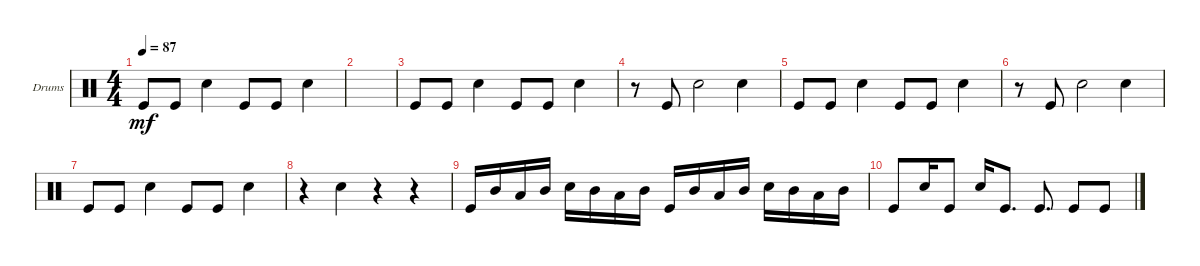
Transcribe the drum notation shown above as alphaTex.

\defaultSystemsLayout 4
\bracketExtendMode groupsimilarinstruments
\firstSystemTrackNameOrientation horizontal
\otherSystemsTrackNameOrientation horizontal
\track ("Body percussion (see notes)" "Drums") {instrument percussion}
\staff {score}
\articulation defaults
\ts (4 4)
\tempo 87
\clef neutral
\ks c "Kick (hit)".8{dy mf} "Kick (hit)".8 "Snare (hit) 2".4 "Kick (hit)".8 "Kick (hit)".8 "Snare (hit) 2".4
|
|
"Kick (hit)".8 "Kick (hit)".8 "Snare (hit) 2".4 "Kick (hit)".8 "Kick (hit)".8 "Snare (hit) 2".4 |
r.8 "Kick (hit)".8 "Snare (hit) 2".2 "Snare (hit) 2".4 |
"Kick (hit)".8 "Kick (hit)".8 "Snare (hit) 2".4 "Kick (hit)".8 "Kick (hit)".8 "Snare (hit) 2".4 |
r.8 "Kick (hit)".8 "Snare (hit) 2".2 "Snare (hit) 2".4 |
"Kick (hit)".8 "Kick (hit)".8 "Snare (hit) 2".4 "Kick (hit)".8 "Kick (hit)".8 "Snare (hit) 2".4 |
r.4 "Snare (hit) 2".4 r.4 r.4 |
"Kick (hit)".16 "Mid Tom (hit)".16 "Low Tom (hit)".16 "Mid Tom (hit)".16 "Snare (hit) 2".16 "Mid Tom (hit)".16 "Low Tom (hit)".16 "Mid Tom (hit)".16 "Kick (hit)".16 "Mid Tom (hit)".16 "Low Tom (hit)".16 "Mid Tom (hit)".16 "Snare (hit) 2".16 "Mid Tom (hit)".16 "Low Tom (hit)".16 "Mid Tom (hit)".16 |
"Kick (hit)".8 "Snare (hit) 2".16 "Kick (hit)".8 "Snare (hit) 2".16 "Kick (hit)".8{d} "Kick (hit)".8{d} "Kick (hit)".8 "Kick (hit)".8
